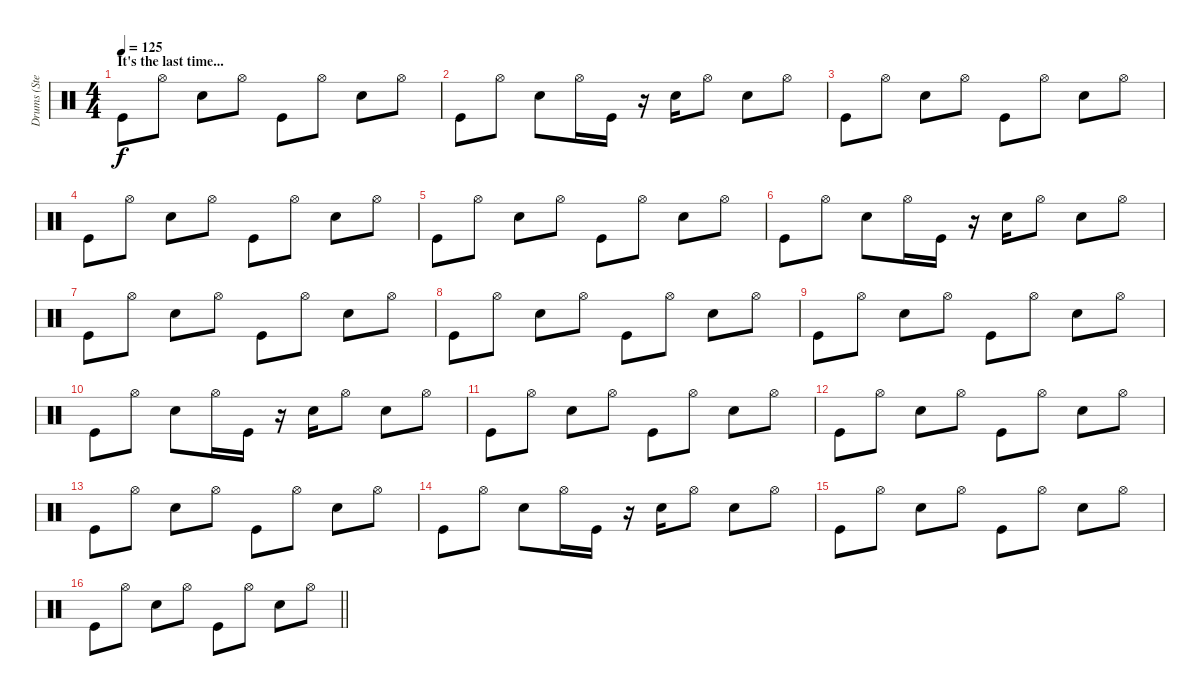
\track ("Drums (Stephen Morris)" "Drums (Ste") {instrument percussion}
\staff {score}
\articulation defaults
\ts (4 4)
\section ("" "It's the last time...")
\tempo 125
\clef neutral
\ks c "Kick (hit)".8{dy f} "Hi-Hat (open)".8 "Electric Snare (hit)".8 "Hi-Hat (open)".8 "Kick (hit)".8 "Hi-Hat (open)".8 "Electric Snare (hit)".8 "Hi-Hat (open)".8
|
"Kick (hit)".8 "Hi-Hat (open)".8 "Electric Snare (hit)".8 "Hi-Hat (open)".16 "Kick (hit)".16 r.16 "Electric Snare (hit)".16 "Hi-Hat (open)".8 "Electric Snare (hit)".8 "Hi-Hat (open)".8 |
"Kick (hit)".8 "Hi-Hat (open)".8 "Electric Snare (hit)".8 "Hi-Hat (open)".8 "Kick (hit)".8 "Hi-Hat (open)".8 "Electric Snare (hit)".8 "Hi-Hat (open)".8 |
"Kick (hit)".8 "Hi-Hat (open)".8 "Electric Snare (hit)".8 "Hi-Hat (open)".8 "Kick (hit)".8 "Hi-Hat (open)".8 "Electric Snare (hit)".8 "Hi-Hat (open)".8 |
"Kick (hit)".8 "Hi-Hat (open)".8 "Electric Snare (hit)".8 "Hi-Hat (open)".8 "Kick (hit)".8 "Hi-Hat (open)".8 "Electric Snare (hit)".8 "Hi-Hat (open)".8 |
"Kick (hit)".8 "Hi-Hat (open)".8 "Electric Snare (hit)".8 "Hi-Hat (open)".16 "Kick (hit)".16 r.16 "Electric Snare (hit)".16 "Hi-Hat (open)".8 "Electric Snare (hit)".8 "Hi-Hat (open)".8 |
"Kick (hit)".8 "Hi-Hat (open)".8 "Electric Snare (hit)".8 "Hi-Hat (open)".8 "Kick (hit)".8 "Hi-Hat (open)".8 "Electric Snare (hit)".8 "Hi-Hat (open)".8 |
"Kick (hit)".8 "Hi-Hat (open)".8 "Electric Snare (hit)".8 "Hi-Hat (open)".8 "Kick (hit)".8 "Hi-Hat (open)".8 "Electric Snare (hit)".8 "Hi-Hat (open)".8 |
"Kick (hit)".8 "Hi-Hat (open)".8 "Electric Snare (hit)".8 "Hi-Hat (open)".8 "Kick (hit)".8 "Hi-Hat (open)".8 "Electric Snare (hit)".8 "Hi-Hat (open)".8 |
"Kick (hit)".8 "Hi-Hat (open)".8 "Electric Snare (hit)".8 "Hi-Hat (open)".16 "Kick (hit)".16 r.16 "Electric Snare (hit)".16 "Hi-Hat (open)".8 "Electric Snare (hit)".8 "Hi-Hat (open)".8 |
"Kick (hit)".8 "Hi-Hat (open)".8 "Electric Snare (hit)".8 "Hi-Hat (open)".8 "Kick (hit)".8 "Hi-Hat (open)".8 "Electric Snare (hit)".8 "Hi-Hat (open)".8 |
"Kick (hit)".8 "Hi-Hat (open)".8 "Electric Snare (hit)".8 "Hi-Hat (open)".8 "Kick (hit)".8 "Hi-Hat (open)".8 "Electric Snare (hit)".8 "Hi-Hat (open)".8 |
"Kick (hit)".8 "Hi-Hat (open)".8 "Electric Snare (hit)".8 "Hi-Hat (open)".8 "Kick (hit)".8 "Hi-Hat (open)".8 "Electric Snare (hit)".8 "Hi-Hat (open)".8 |
"Kick (hit)".8 "Hi-Hat (open)".8 "Electric Snare (hit)".8 "Hi-Hat (open)".16 "Kick (hit)".16 r.16 "Electric Snare (hit)".16 "Hi-Hat (open)".8 "Electric Snare (hit)".8 "Hi-Hat (open)".8 |
"Kick (hit)".8 "Hi-Hat (open)".8 "Electric Snare (hit)".8 "Hi-Hat (open)".8 "Kick (hit)".8 "Hi-Hat (open)".8 "Electric Snare (hit)".8 "Hi-Hat (open)".8 |
\barLineRight lightlight "Kick (hit)".8 "Hi-Hat (open)".8 "Electric Snare (hit)".8 "Hi-Hat (open)".8 "Kick (hit)".8 "Hi-Hat (open)".8 "Electric Snare (hit)".8 "Hi-Hat (open)".8
